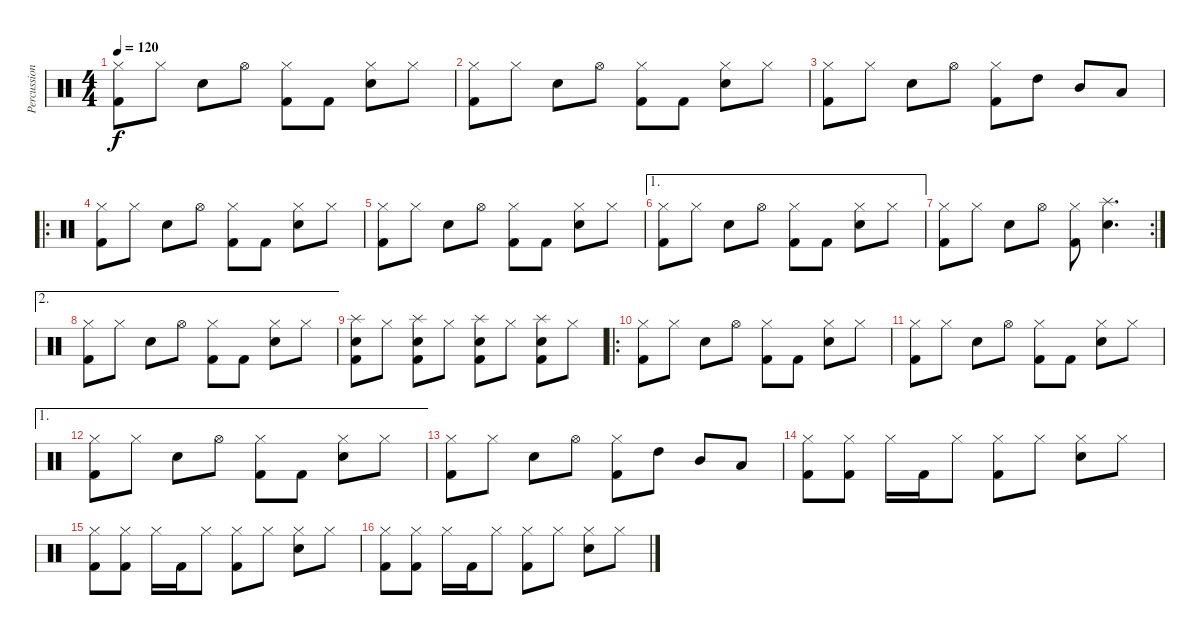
\track ("Percussion" "Percussion") {instrument percussion}
\staff {score}
\articulation defaults
\ts (4 4)
\tempo 120
\clef neutral
\ks c
("Hi-Hat (closed)" "Kick (hit) 2").8{dy f} "Hi-Hat (closed)".8 "Snare (hit) 2".8 "Hi-Hat (open)".8 ("Hi-Hat (closed)" "Kick (hit) 2").8 "Kick (hit) 2".8 ("Hi-Hat (closed)" "Snare (hit) 2").8 "Hi-Hat (closed)".8 |
("Hi-Hat (closed)" "Kick (hit) 2").8 "Hi-Hat (closed)".8 "Snare (hit) 2".8 "Hi-Hat (open)".8 ("Hi-Hat (closed)" "Kick (hit) 2").8 "Kick (hit) 2".8 ("Hi-Hat (closed)" "Snare (hit) 2").8 "Hi-Hat (closed)".8 |
("Hi-Hat (closed)" "Kick (hit) 2").8 "Hi-Hat (closed)".8 "Snare (hit) 2".8 "Hi-Hat (open)".8 ("Hi-Hat (closed)" "Kick (hit) 2").8 "High Tom (hit)".8 "Mid Tom (hit)".8 "Low Tom (hit)".8 |
\ro
("Hi-Hat (closed)" "Kick (hit) 2").8 "Hi-Hat (closed)".8 "Snare (hit) 2".8 "Hi-Hat (open)".8 ("Hi-Hat (closed)" "Kick (hit) 2").8 "Kick (hit) 2".8 ("Hi-Hat (closed)" "Snare (hit) 2").8 "Hi-Hat (closed)".8 |
("Hi-Hat (closed)" "Kick (hit) 2").8 "Hi-Hat (closed)".8 "Snare (hit) 2".8 "Hi-Hat (open)".8 ("Hi-Hat (closed)" "Kick (hit) 2").8 "Kick (hit) 2".8 ("Hi-Hat (closed)" "Snare (hit) 2").8 "Hi-Hat (closed)".8 |
\ae 1
("Hi-Hat (closed)" "Kick (hit) 2").8 "Hi-Hat (closed)".8 "Snare (hit) 2".8 "Hi-Hat (open)".8 ("Hi-Hat (closed)" "Kick (hit) 2").8 "Kick (hit) 2".8 ("Hi-Hat (closed)" "Snare (hit) 2").8 "Hi-Hat (closed)".8 |
\rc 2
("Hi-Hat (closed)" "Kick (hit) 2").8 "Hi-Hat (closed)".8 "Snare (hit) 2".8 "Hi-Hat (open)".8 ("Hi-Hat (closed)" "Kick (hit) 2").8 ("Splash (hit)" "Snare (hit) 2").4{d} |
\ae 2
("Hi-Hat (closed)" "Kick (hit) 2").8 "Hi-Hat (closed)".8 "Snare (hit) 2".8 "Hi-Hat (open)".8 ("Hi-Hat (closed)" "Kick (hit) 2").8 "Kick (hit) 2".8 ("Hi-Hat (closed)" "Snare (hit) 2").8 "Hi-Hat (closed)".8 |
("Splash (hit)" "Snare (hit) 2" "Kick (hit) 2").8 "Hi-Hat (closed)".8 ("Splash (hit)" "Snare (hit) 2" "Kick (hit) 2").8 "Hi-Hat (closed)".8 ("Splash (hit)" "Snare (hit) 2" "Kick (hit) 2").8 "Hi-Hat (closed)".8 ("Splash (hit)" "Snare (hit) 2" "Kick (hit) 2").8 "Hi-Hat (closed)".8 |
\ro
("Hi-Hat (closed)" "Kick (hit) 2").8 "Hi-Hat (closed)".8 "Snare (hit) 2".8 "Hi-Hat (open)".8 ("Hi-Hat (closed)" "Kick (hit) 2").8 "Kick (hit) 2".8 ("Hi-Hat (closed)" "Snare (hit) 2").8 "Hi-Hat (closed)".8 |
("Hi-Hat (closed)" "Kick (hit) 2").8 "Hi-Hat (closed)".8 "Snare (hit) 2".8 "Hi-Hat (open)".8 ("Hi-Hat (closed)" "Kick (hit) 2").8 "Kick (hit) 2".8 ("Hi-Hat (closed)" "Snare (hit) 2").8 "Hi-Hat (closed)".8 |
\ae 1
("Hi-Hat (closed)" "Kick (hit) 2").8 "Hi-Hat (closed)".8 "Snare (hit) 2".8 "Hi-Hat (open)".8 ("Hi-Hat (closed)" "Kick (hit) 2").8 "Kick (hit) 2".8 ("Hi-Hat (closed)" "Snare (hit) 2").8 "Hi-Hat (closed)".8 |
("Hi-Hat (closed)" "Kick (hit) 2").8 "Hi-Hat (closed)".8 "Snare (hit) 2".8 "Hi-Hat (open)".8 ("Hi-Hat (closed)" "Kick (hit) 2").8 "High Tom (hit)".8 "Mid Tom (hit)".8 "Low Tom (hit)".8 |
("Hi-Hat (closed)" "Kick (hit) 2").8 ("Hi-Hat (closed)" "Kick (hit) 2").8 "Hi-Hat (closed)".16 "Kick (hit) 2".16 "Hi-Hat (closed)".8 ("Hi-Hat (closed)" "Kick (hit) 2").8 "Hi-Hat (closed)".8 ("Hi-Hat (closed)" "Snare (hit) 2").8 "Hi-Hat (closed)".8 |
("Hi-Hat (closed)" "Kick (hit) 2").8 ("Hi-Hat (closed)" "Kick (hit) 2").8 "Hi-Hat (closed)".16 "Kick (hit) 2".16 "Hi-Hat (closed)".8 ("Hi-Hat (closed)" "Kick (hit) 2").8 "Hi-Hat (closed)".8 ("Hi-Hat (closed)" "Snare (hit) 2").8 "Hi-Hat (closed)".8 |
("Hi-Hat (closed)" "Kick (hit) 2").8 ("Hi-Hat (closed)" "Kick (hit) 2").8 "Hi-Hat (closed)".16 "Kick (hit) 2".16 "Hi-Hat (closed)".8 ("Hi-Hat (closed)" "Kick (hit) 2").8 "Hi-Hat (closed)".8 ("Hi-Hat (closed)" "Snare (hit) 2").8 "Hi-Hat (closed)".8
